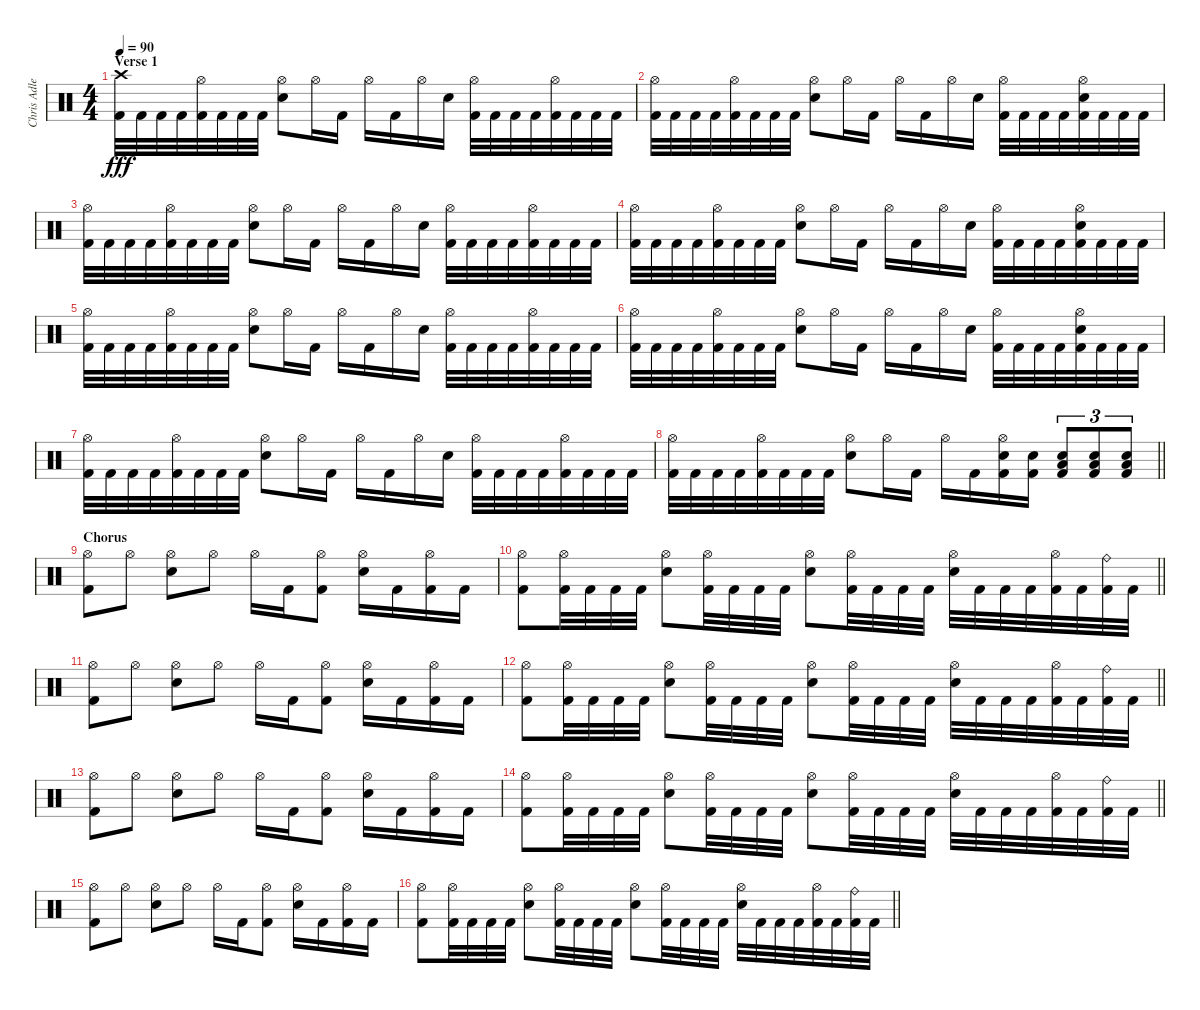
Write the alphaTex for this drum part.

\track ("Chris Adler" "Chris Adle") {instrument percussion}
\staff {score}
\articulation defaults
\ts (4 4)
\section ("" "Verse 1")
\tempo 90
\clef neutral
\ks c
("Crash high (hit)" "Kick (hit) 2").32{dy fff} "Kick (hit) 2".32 "Kick (hit) 2".32 "Kick (hit) 2".32 ("Hi-Hat (open)" "Kick (hit) 2").32 "Kick (hit) 2".32 "Kick (hit) 2".32 "Kick (hit) 2".32 ("Hi-Hat (open)" "Electric Snare (hit)").8 "Hi-Hat (open)".16 "Kick (hit) 2".16 "Hi-Hat (open)".16 "Kick (hit) 2".16 "Hi-Hat (open)".16 "Electric Snare (hit)".16 ("Hi-Hat (open)" "Kick (hit) 2").32 "Kick (hit) 2".32 "Kick (hit) 2".32 "Kick (hit) 2".32 ("Hi-Hat (open)" "Kick (hit) 2").32 "Kick (hit) 2".32 "Kick (hit) 2".32 "Kick (hit) 2".32 |
("Hi-Hat (open)" "Kick (hit) 2").32 "Kick (hit) 2".32 "Kick (hit) 2".32 "Kick (hit) 2".32 ("Hi-Hat (open)" "Kick (hit) 2").32 "Kick (hit) 2".32 "Kick (hit) 2".32 "Kick (hit) 2".32 ("Hi-Hat (open)" "Electric Snare (hit)").8 "Hi-Hat (open)".16 "Kick (hit) 2".16 "Hi-Hat (open)".16 "Kick (hit) 2".16 "Hi-Hat (open)".16 "Electric Snare (hit)".16 ("Hi-Hat (open)" "Kick (hit) 2").32 "Kick (hit) 2".32 "Kick (hit) 2".32 "Kick (hit) 2".32 ("Hi-Hat (open)" "Electric Snare (hit)" "Kick (hit) 2").32 "Kick (hit) 2".32 "Kick (hit) 2".32 "Kick (hit) 2".32 |
("Hi-Hat (open)" "Kick (hit) 2").32 "Kick (hit) 2".32 "Kick (hit) 2".32 "Kick (hit) 2".32 ("Hi-Hat (open)" "Kick (hit) 2").32 "Kick (hit) 2".32 "Kick (hit) 2".32 "Kick (hit) 2".32 ("Hi-Hat (open)" "Electric Snare (hit)").8 "Hi-Hat (open)".16 "Kick (hit) 2".16 "Hi-Hat (open)".16 "Kick (hit) 2".16 "Hi-Hat (open)".16 "Electric Snare (hit)".16 ("Hi-Hat (open)" "Kick (hit) 2").32 "Kick (hit) 2".32 "Kick (hit) 2".32 "Kick (hit) 2".32 ("Hi-Hat (open)" "Kick (hit) 2").32 "Kick (hit) 2".32 "Kick (hit) 2".32 "Kick (hit) 2".32 |
("Hi-Hat (open)" "Kick (hit) 2").32 "Kick (hit) 2".32 "Kick (hit) 2".32 "Kick (hit) 2".32 ("Hi-Hat (open)" "Kick (hit) 2").32 "Kick (hit) 2".32 "Kick (hit) 2".32 "Kick (hit) 2".32 ("Hi-Hat (open)" "Electric Snare (hit)").8 "Hi-Hat (open)".16 "Kick (hit) 2".16 "Hi-Hat (open)".16 "Kick (hit) 2".16 "Hi-Hat (open)".16 "Electric Snare (hit)".16 ("Hi-Hat (open)" "Kick (hit) 2").32 "Kick (hit) 2".32 "Kick (hit) 2".32 "Kick (hit) 2".32 ("Hi-Hat (open)" "Electric Snare (hit)" "Kick (hit) 2").32 "Kick (hit) 2".32 "Kick (hit) 2".32 "Kick (hit) 2".32 |
("Hi-Hat (open)" "Kick (hit) 2").32 "Kick (hit) 2".32 "Kick (hit) 2".32 "Kick (hit) 2".32 ("Hi-Hat (open)" "Kick (hit) 2").32 "Kick (hit) 2".32 "Kick (hit) 2".32 "Kick (hit) 2".32 ("Hi-Hat (open)" "Electric Snare (hit)").8 "Hi-Hat (open)".16 "Kick (hit) 2".16 "Hi-Hat (open)".16 "Kick (hit) 2".16 "Hi-Hat (open)".16 "Electric Snare (hit)".16 ("Hi-Hat (open)" "Kick (hit) 2").32 "Kick (hit) 2".32 "Kick (hit) 2".32 "Kick (hit) 2".32 ("Hi-Hat (open)" "Kick (hit) 2").32 "Kick (hit) 2".32 "Kick (hit) 2".32 "Kick (hit) 2".32 |
("Hi-Hat (open)" "Kick (hit) 2").32 "Kick (hit) 2".32 "Kick (hit) 2".32 "Kick (hit) 2".32 ("Hi-Hat (open)" "Kick (hit) 2").32 "Kick (hit) 2".32 "Kick (hit) 2".32 "Kick (hit) 2".32 ("Hi-Hat (open)" "Electric Snare (hit)").8 "Hi-Hat (open)".16 "Kick (hit) 2".16 "Hi-Hat (open)".16 "Kick (hit) 2".16 "Hi-Hat (open)".16 "Electric Snare (hit)".16 ("Hi-Hat (open)" "Kick (hit) 2").32 "Kick (hit) 2".32 "Kick (hit) 2".32 "Kick (hit) 2".32 ("Hi-Hat (open)" "Electric Snare (hit)" "Kick (hit) 2").32 "Kick (hit) 2".32 "Kick (hit) 2".32 "Kick (hit) 2".32 |
("Hi-Hat (open)" "Kick (hit) 2").32 "Kick (hit) 2".32 "Kick (hit) 2".32 "Kick (hit) 2".32 ("Hi-Hat (open)" "Kick (hit) 2").32 "Kick (hit) 2".32 "Kick (hit) 2".32 "Kick (hit) 2".32 ("Hi-Hat (open)" "Electric Snare (hit)").8 "Hi-Hat (open)".16 "Kick (hit) 2".16 "Hi-Hat (open)".16 "Kick (hit) 2".16 "Hi-Hat (open)".16 "Electric Snare (hit)".16 ("Hi-Hat (open)" "Kick (hit) 2").32 "Kick (hit) 2".32 "Kick (hit) 2".32 "Kick (hit) 2".32 ("Hi-Hat (open)" "Kick (hit) 2").32 "Kick (hit) 2".32 "Kick (hit) 2".32 "Kick (hit) 2".32 |
\barLineRight lightlight
("Hi-Hat (open)" "Kick (hit) 2").32 "Kick (hit) 2".32 "Kick (hit) 2".32 "Kick (hit) 2".32 ("Hi-Hat (open)" "Kick (hit) 2").32 "Kick (hit) 2".32 "Kick (hit) 2".32 "Kick (hit) 2".32 ("Hi-Hat (open)" "Electric Snare (hit)").8 "Hi-Hat (open)".16 "Kick (hit) 2".16 "Hi-Hat (open)".16 "Kick (hit) 2".16 ("Hi-Hat (open)" "Electric Snare (hit)" "Kick (hit) 2").16 ("Electric Snare (hit)" "Kick (hit) 2").16 ("Low Floor Tom (hit)" "Electric Snare (hit)" "Kick (hit) 2").8{tu (3 2)} ("Low Floor Tom (hit)" "Electric Snare (hit)" "Kick (hit) 2").8{tu (3 2)} ("Low Floor Tom (hit)" "Electric Snare (hit)" "Kick (hit) 2").8{tu (3 2)} |
\section ("" "Chorus")
("Hi-Hat (open)" "Kick (hit) 2").8 "Hi-Hat (open)".8 ("Hi-Hat (open)" "Electric Snare (hit)").8 "Hi-Hat (open)".8 "Hi-Hat (open)".16 "Kick (hit) 2".16 ("Hi-Hat (open)" "Kick (hit) 2").8 ("Hi-Hat (open)" "Electric Snare (hit)").16 "Kick (hit) 2".16 ("Hi-Hat (open)" "Kick (hit) 2").16 "Kick (hit) 2".16 |
\barLineRight lightlight
("Hi-Hat (open)" "Kick (hit) 2").8 ("Hi-Hat (open)" "Kick (hit) 2").32 "Kick (hit) 2".32 "Kick (hit) 2".32 "Kick (hit) 2".32 ("Hi-Hat (open)" "Electric Snare (hit)").8 ("Hi-Hat (open)" "Kick (hit) 2").32 "Kick (hit) 2".32 "Kick (hit) 2".32 "Kick (hit) 2".32 ("Hi-Hat (open)" "Electric Snare (hit)").8 ("Hi-Hat (open)" "Kick (hit) 2").32 "Kick (hit) 2".32 "Kick (hit) 2".32 "Kick (hit) 2".32 ("Hi-Hat (open)" "Electric Snare (hit)").32 "Kick (hit) 2".32 "Kick (hit) 2".32 "Kick (hit) 2".32 ("Hi-Hat (open)" "Kick (hit) 2").32 "Kick (hit) 2".32 ("Ride (bell)" "Kick (hit) 2").32 "Kick (hit) 2".32 |
("Hi-Hat (open)" "Kick (hit) 2").8 "Hi-Hat (open)".8 ("Hi-Hat (open)" "Electric Snare (hit)").8 "Hi-Hat (open)".8 "Hi-Hat (open)".16 "Kick (hit) 2".16 ("Hi-Hat (open)" "Kick (hit) 2").8 ("Hi-Hat (open)" "Electric Snare (hit)").16 "Kick (hit) 2".16 ("Hi-Hat (open)" "Kick (hit) 2").16 "Kick (hit) 2".16 |
\barLineRight lightlight
("Hi-Hat (open)" "Kick (hit) 2").8 ("Hi-Hat (open)" "Kick (hit) 2").32 "Kick (hit) 2".32 "Kick (hit) 2".32 "Kick (hit) 2".32 ("Hi-Hat (open)" "Electric Snare (hit)").8 ("Hi-Hat (open)" "Kick (hit) 2").32 "Kick (hit) 2".32 "Kick (hit) 2".32 "Kick (hit) 2".32 ("Hi-Hat (open)" "Electric Snare (hit)").8 ("Hi-Hat (open)" "Kick (hit) 2").32 "Kick (hit) 2".32 "Kick (hit) 2".32 "Kick (hit) 2".32 ("Hi-Hat (open)" "Electric Snare (hit)").32 "Kick (hit) 2".32 "Kick (hit) 2".32 "Kick (hit) 2".32 ("Hi-Hat (open)" "Kick (hit) 2").32 "Kick (hit) 2".32 ("Ride (bell)" "Kick (hit) 2").32 "Kick (hit) 2".32 |
("Hi-Hat (open)" "Kick (hit) 2").8 "Hi-Hat (open)".8 ("Hi-Hat (open)" "Electric Snare (hit)").8 "Hi-Hat (open)".8 "Hi-Hat (open)".16 "Kick (hit) 2".16 ("Hi-Hat (open)" "Kick (hit) 2").8 ("Hi-Hat (open)" "Electric Snare (hit)").16 "Kick (hit) 2".16 ("Hi-Hat (open)" "Kick (hit) 2").16 "Kick (hit) 2".16 |
\barLineRight lightlight
("Hi-Hat (open)" "Kick (hit) 2").8 ("Hi-Hat (open)" "Kick (hit) 2").32 "Kick (hit) 2".32 "Kick (hit) 2".32 "Kick (hit) 2".32 ("Hi-Hat (open)" "Electric Snare (hit)").8 ("Hi-Hat (open)" "Kick (hit) 2").32 "Kick (hit) 2".32 "Kick (hit) 2".32 "Kick (hit) 2".32 ("Hi-Hat (open)" "Electric Snare (hit)").8 ("Hi-Hat (open)" "Kick (hit) 2").32 "Kick (hit) 2".32 "Kick (hit) 2".32 "Kick (hit) 2".32 ("Hi-Hat (open)" "Electric Snare (hit)").32 "Kick (hit) 2".32 "Kick (hit) 2".32 "Kick (hit) 2".32 ("Hi-Hat (open)" "Kick (hit) 2").32 "Kick (hit) 2".32 ("Ride (bell)" "Kick (hit) 2").32 "Kick (hit) 2".32 |
("Hi-Hat (open)" "Kick (hit) 2").8 "Hi-Hat (open)".8 ("Hi-Hat (open)" "Electric Snare (hit)").8 "Hi-Hat (open)".8 "Hi-Hat (open)".16 "Kick (hit) 2".16 ("Hi-Hat (open)" "Kick (hit) 2").8 ("Hi-Hat (open)" "Electric Snare (hit)").16 "Kick (hit) 2".16 ("Hi-Hat (open)" "Kick (hit) 2").16 "Kick (hit) 2".16 |
\barLineRight lightlight
("Hi-Hat (open)" "Kick (hit) 2").8 ("Hi-Hat (open)" "Kick (hit) 2").32 "Kick (hit) 2".32 "Kick (hit) 2".32 "Kick (hit) 2".32 ("Hi-Hat (open)" "Electric Snare (hit)").8 ("Hi-Hat (open)" "Kick (hit) 2").32 "Kick (hit) 2".32 "Kick (hit) 2".32 "Kick (hit) 2".32 ("Hi-Hat (open)" "Electric Snare (hit)").8 ("Hi-Hat (open)" "Kick (hit) 2").32 "Kick (hit) 2".32 "Kick (hit) 2".32 "Kick (hit) 2".32 ("Hi-Hat (open)" "Electric Snare (hit)").32 "Kick (hit) 2".32 "Kick (hit) 2".32 "Kick (hit) 2".32 ("Hi-Hat (open)" "Kick (hit) 2").32 "Kick (hit) 2".32 ("Ride (bell)" "Kick (hit) 2").32 "Kick (hit) 2".32
